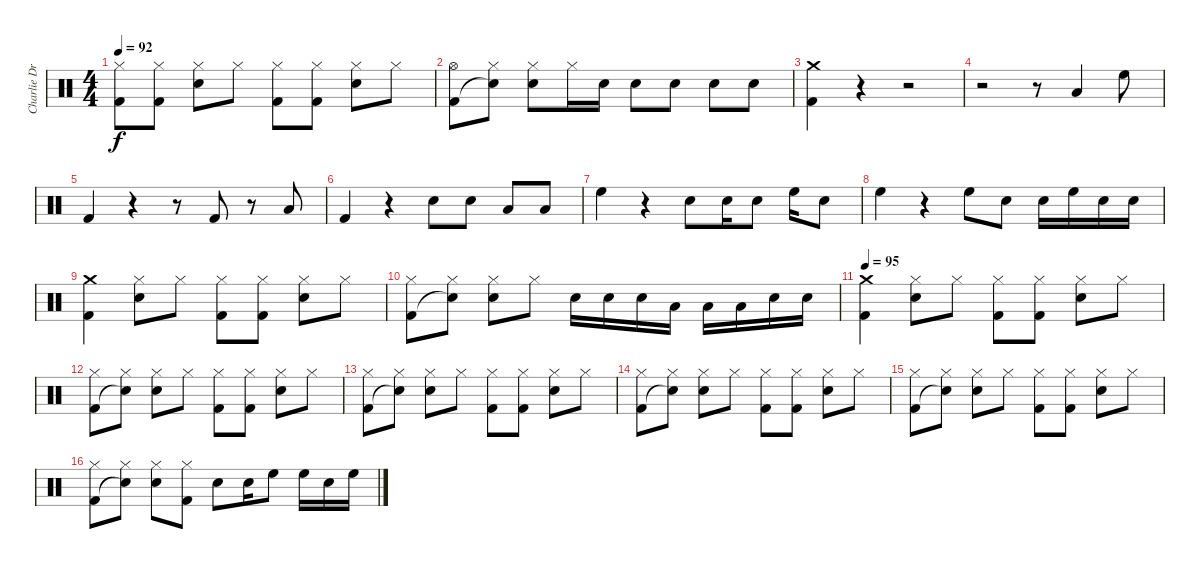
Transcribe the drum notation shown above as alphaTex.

\track ("Charlie Drums" "Charlie Dr") {instrument percussion}
\staff {score}
\articulation defaults
\ts (4 4)
\tempo 92
\clef neutral
\ks c
("Hi-Hat (closed)" "Kick (hit) 2").8{dy f} ("Hi-Hat (closed)" "Kick (hit) 2").8 ("Hi-Hat (closed)" "Snare (hit) 2").8 "Hi-Hat (closed)".8 ("Hi-Hat (closed)" "Kick (hit) 2").8 ("Hi-Hat (closed)" "Kick (hit) 2").8 ("Hi-Hat (closed)" "Snare (hit) 2").8 "Hi-Hat (closed)".8 |
("Hi-Hat (open)" "Kick (hit) 2").8 ("Hi-Hat (closed)" "Snare (hit)"{t}).8 ("Hi-Hat (closed)" "Snare (hit) 2").8 "Hi-Hat (closed)".16 "Snare (hit) 2".16 "Snare (hit) 2".8 "Snare (hit) 2".8 "Snare (hit) 2".8 "Snare (hit) 2".8 |
("Crash medium (hit)" "Kick (hit) 2").4 r.4 r.2 |
r.2 r.8 "Low Tom (hit)".4 "High Floor Tom (hit)".8 |
"Kick (hit) 2".4 r.4 r.8 "Kick (hit) 2".8 r.8 "Low Tom (hit)".8 |
"Kick (hit) 2".4 r.4 "Snare (hit) 2".8 "Snare (hit) 2".8 "Low Tom (hit)".8 "Low Tom (hit)".8 |
"High Floor Tom (hit)".4 r.4 "Snare (hit) 2".8 "Snare (hit) 2".16 "Snare (hit) 2".8 "High Floor Tom (hit)".16 "Snare (hit) 2".8 |
"High Floor Tom (hit)".4 r.4 "High Floor Tom (hit)".8 "Snare (hit) 2".8 "Snare (hit) 2".16 "High Floor Tom (hit)".16 "Snare (hit) 2".16 "Snare (hit) 2".16 |
("Crash medium (hit)" "Kick (hit) 2").4 ("Hi-Hat (closed)" "Snare (hit) 2").8 "Hi-Hat (closed)".8 ("Hi-Hat (closed)" "Kick (hit) 2").8 ("Hi-Hat (closed)" "Kick (hit) 2").8 ("Hi-Hat (closed)" "Snare (hit) 2").8 "Hi-Hat (closed)".8 |
("Hi-Hat (closed)" "Kick (hit) 2").8 ("Hi-Hat (closed)" "Snare (hit)"{t}).8 ("Hi-Hat (closed)" "Snare (hit) 2").8 "Hi-Hat (closed)".8 "Snare (hit) 2".16 "Snare (hit) 2".16 "Snare (hit) 2".16 "Low Tom (hit)".16 "Low Tom (hit)".16 "Low Tom (hit)".16 "Snare (hit) 2".16 "Snare (hit) 2".16 |
\tempo 95
("Crash medium (hit)" "Kick (hit) 2").4 ("Hi-Hat (closed)" "Snare (hit) 2").8 "Hi-Hat (closed)".8 ("Hi-Hat (closed)" "Kick (hit) 2").8 ("Hi-Hat (closed)" "Kick (hit) 2").8 ("Hi-Hat (closed)" "Snare (hit) 2").8 "Hi-Hat (closed)".8 |
("Hi-Hat (closed)" "Kick (hit) 2").8 ("Hi-Hat (closed)" "Snare (hit)"{t}).8 ("Hi-Hat (closed)" "Snare (hit) 2").8 "Hi-Hat (closed)".8 ("Hi-Hat (closed)" "Kick (hit) 2").8 ("Hi-Hat (closed)" "Kick (hit) 2").8 ("Hi-Hat (closed)" "Snare (hit) 2").8 "Hi-Hat (closed)".8 |
("Hi-Hat (closed)" "Kick (hit) 2").8 ("Hi-Hat (closed)" "Snare (hit)"{t}).8 ("Hi-Hat (closed)" "Snare (hit) 2").8 "Hi-Hat (closed)".8 ("Hi-Hat (closed)" "Kick (hit) 2").8 ("Hi-Hat (closed)" "Kick (hit) 2").8 ("Hi-Hat (closed)" "Snare (hit) 2").8 "Hi-Hat (closed)".8 |
("Hi-Hat (closed)" "Kick (hit) 2").8 ("Hi-Hat (closed)" "Snare (hit)"{t}).8 ("Hi-Hat (closed)" "Snare (hit) 2").8 "Hi-Hat (closed)".8 ("Hi-Hat (closed)" "Kick (hit) 2").8 ("Hi-Hat (closed)" "Kick (hit) 2").8 ("Hi-Hat (closed)" "Snare (hit) 2").8 "Hi-Hat (closed)".8 |
("Hi-Hat (closed)" "Kick (hit) 2").8 ("Hi-Hat (closed)" "Snare (hit)"{t}).8 ("Hi-Hat (closed)" "Snare (hit) 2").8 "Hi-Hat (closed)".8 ("Hi-Hat (closed)" "Kick (hit) 2").8 ("Hi-Hat (closed)" "Kick (hit) 2").8 ("Hi-Hat (closed)" "Snare (hit) 2").8 "Hi-Hat (closed)".8 |
("Hi-Hat (closed)" "Kick (hit) 2").8 ("Hi-Hat (closed)" "Snare (hit)"{t}).8 ("Hi-Hat (closed)" "Snare (hit) 2").8 ("Hi-Hat (closed)" "Kick (hit) 2").8 "Snare (hit) 2".8 "Snare (hit) 2".16 "High Floor Tom (hit)".8 "High Floor Tom (hit)".16 "Snare (hit) 2".16 "High Floor Tom (hit)".16
